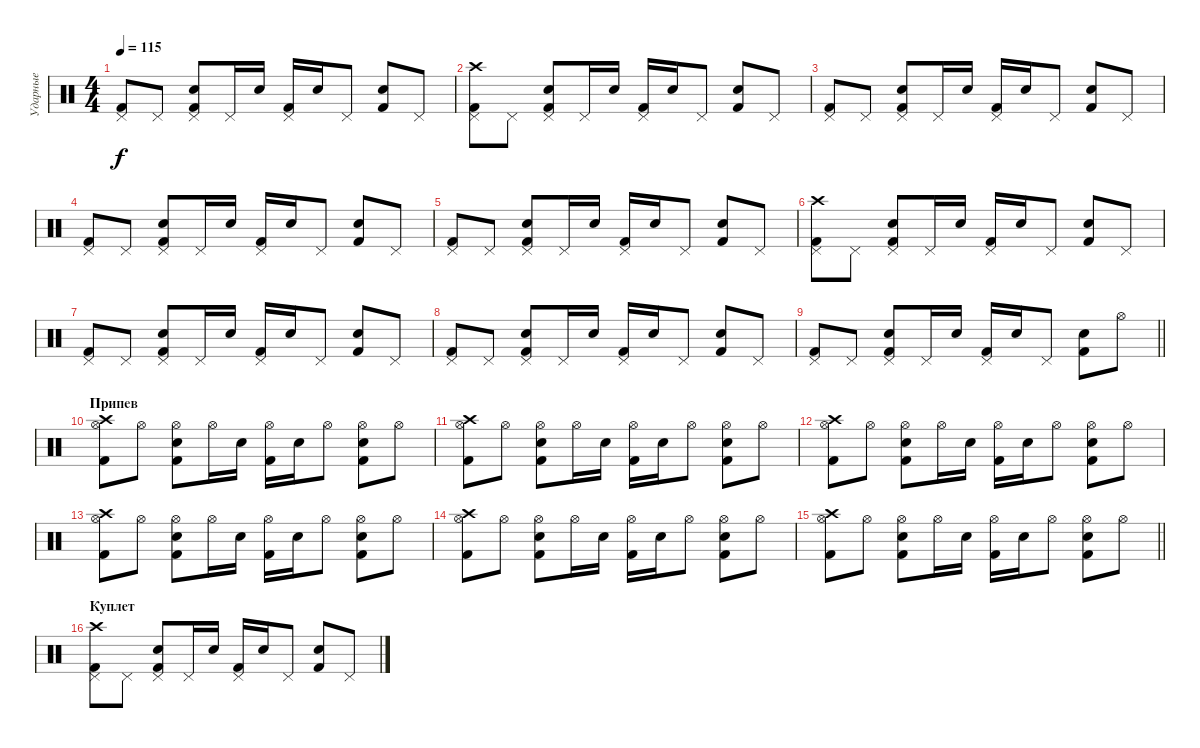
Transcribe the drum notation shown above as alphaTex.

\track ("Ударные" "Ударные") {instrument percussion}
\staff {score}
\articulation defaults
\ts (4 4)
\tempo 115
\clef neutral
\ks c
("Pedal Hi-Hat (hit)" "Kick (hit) 2").8{dy f} "Pedal Hi-Hat (hit)".8 ("Pedal Hi-Hat (hit)" "Electric Snare (hit)" "Kick (hit) 2").8 "Pedal Hi-Hat (hit)".16 "Electric Snare (hit)".16 ("Pedal Hi-Hat (hit)" "Kick (hit) 2").16 "Electric Snare (hit)".16 "Pedal Hi-Hat (hit)".8 ("Electric Snare (hit)" "Kick (hit) 2").8 "Pedal Hi-Hat (hit)".8 |
("Pedal Hi-Hat (hit)" "Crash high (hit)" "Kick (hit) 2").8 "Pedal Hi-Hat (hit)".8 ("Pedal Hi-Hat (hit)" "Electric Snare (hit)" "Kick (hit) 2").8 "Pedal Hi-Hat (hit)".16 "Electric Snare (hit)".16 ("Pedal Hi-Hat (hit)" "Kick (hit) 2").16 "Electric Snare (hit)".16 "Pedal Hi-Hat (hit)".8 ("Electric Snare (hit)" "Kick (hit) 2").8 "Pedal Hi-Hat (hit)".8 |
("Pedal Hi-Hat (hit)" "Kick (hit) 2").8 "Pedal Hi-Hat (hit)".8 ("Pedal Hi-Hat (hit)" "Electric Snare (hit)" "Kick (hit) 2").8 "Pedal Hi-Hat (hit)".16 "Electric Snare (hit)".16 ("Pedal Hi-Hat (hit)" "Kick (hit) 2").16 "Electric Snare (hit)".16 "Pedal Hi-Hat (hit)".8 ("Electric Snare (hit)" "Kick (hit) 2").8 "Pedal Hi-Hat (hit)".8 |
("Pedal Hi-Hat (hit)" "Kick (hit) 2").8 "Pedal Hi-Hat (hit)".8 ("Pedal Hi-Hat (hit)" "Electric Snare (hit)" "Kick (hit) 2").8 "Pedal Hi-Hat (hit)".16 "Electric Snare (hit)".16 ("Pedal Hi-Hat (hit)" "Kick (hit) 2").16 "Electric Snare (hit)".16 "Pedal Hi-Hat (hit)".8 ("Electric Snare (hit)" "Kick (hit) 2").8 "Pedal Hi-Hat (hit)".8 |
("Pedal Hi-Hat (hit)" "Kick (hit) 2").8 "Pedal Hi-Hat (hit)".8 ("Pedal Hi-Hat (hit)" "Electric Snare (hit)" "Kick (hit) 2").8 "Pedal Hi-Hat (hit)".16 "Electric Snare (hit)".16 ("Pedal Hi-Hat (hit)" "Kick (hit) 2").16 "Electric Snare (hit)".16 "Pedal Hi-Hat (hit)".8 ("Electric Snare (hit)" "Kick (hit) 2").8 "Pedal Hi-Hat (hit)".8 |
("Pedal Hi-Hat (hit)" "Crash high (hit)" "Kick (hit) 2").8 "Pedal Hi-Hat (hit)".8 ("Pedal Hi-Hat (hit)" "Electric Snare (hit)" "Kick (hit) 2").8 "Pedal Hi-Hat (hit)".16 "Electric Snare (hit)".16 ("Pedal Hi-Hat (hit)" "Kick (hit) 2").16 "Electric Snare (hit)".16 "Pedal Hi-Hat (hit)".8 ("Electric Snare (hit)" "Kick (hit) 2").8 "Pedal Hi-Hat (hit)".8 |
("Pedal Hi-Hat (hit)" "Kick (hit) 2").8 "Pedal Hi-Hat (hit)".8 ("Pedal Hi-Hat (hit)" "Electric Snare (hit)" "Kick (hit) 2").8 "Pedal Hi-Hat (hit)".16 "Electric Snare (hit)".16 ("Pedal Hi-Hat (hit)" "Kick (hit) 2").16 "Electric Snare (hit)".16 "Pedal Hi-Hat (hit)".8 ("Electric Snare (hit)" "Kick (hit) 2").8 "Pedal Hi-Hat (hit)".8 |
("Pedal Hi-Hat (hit)" "Kick (hit) 2").8 "Pedal Hi-Hat (hit)".8 ("Pedal Hi-Hat (hit)" "Electric Snare (hit)" "Kick (hit) 2").8 "Pedal Hi-Hat (hit)".16 "Electric Snare (hit)".16 ("Pedal Hi-Hat (hit)" "Kick (hit) 2").16 "Electric Snare (hit)".16 "Pedal Hi-Hat (hit)".8 ("Electric Snare (hit)" "Kick (hit) 2").8 "Pedal Hi-Hat (hit)".8 |
\barLineRight lightlight
("Pedal Hi-Hat (hit)" "Kick (hit) 2").8 "Pedal Hi-Hat (hit)".8 ("Pedal Hi-Hat (hit)" "Electric Snare (hit)" "Kick (hit) 2").8 "Pedal Hi-Hat (hit)".16 "Electric Snare (hit)".16 ("Pedal Hi-Hat (hit)" "Kick (hit) 2").16 "Electric Snare (hit)".16 "Pedal Hi-Hat (hit)".8 ("Electric Snare (hit)" "Kick (hit) 2").8 "Hi-Hat (open)".8 |
\section ("" "Припев")
("Hi-Hat (open)" "Crash high (hit)" "Kick (hit) 2").8 "Hi-Hat (open)".8 ("Hi-Hat (open)" "Electric Snare (hit)" "Kick (hit) 2").8 "Hi-Hat (open)".16 "Electric Snare (hit)".16 ("Hi-Hat (open)" "Kick (hit) 2").16 "Electric Snare (hit)".16 "Hi-Hat (open)".8 ("Hi-Hat (open)" "Electric Snare (hit)" "Kick (hit) 2").8 "Hi-Hat (open)".8 |
("Hi-Hat (open)" "Crash high (hit)" "Kick (hit) 2").8 "Hi-Hat (open)".8 ("Hi-Hat (open)" "Electric Snare (hit)" "Kick (hit) 2").8 "Hi-Hat (open)".16 "Electric Snare (hit)".16 ("Hi-Hat (open)" "Kick (hit) 2").16 "Electric Snare (hit)".16 "Hi-Hat (open)".8 ("Hi-Hat (open)" "Electric Snare (hit)" "Kick (hit) 2").8 "Hi-Hat (open)".8 |
("Hi-Hat (open)" "Crash high (hit)" "Kick (hit) 2").8 "Hi-Hat (open)".8 ("Hi-Hat (open)" "Electric Snare (hit)" "Kick (hit) 2").8 "Hi-Hat (open)".16 "Electric Snare (hit)".16 ("Hi-Hat (open)" "Kick (hit) 2").16 "Electric Snare (hit)".16 "Hi-Hat (open)".8 ("Hi-Hat (open)" "Electric Snare (hit)" "Kick (hit) 2").8 "Hi-Hat (open)".8 |
("Hi-Hat (open)" "Crash high (hit)" "Kick (hit) 2").8 "Hi-Hat (open)".8 ("Hi-Hat (open)" "Electric Snare (hit)" "Kick (hit) 2").8 "Hi-Hat (open)".16 "Electric Snare (hit)".16 ("Hi-Hat (open)" "Kick (hit) 2").16 "Electric Snare (hit)".16 "Hi-Hat (open)".8 ("Hi-Hat (open)" "Electric Snare (hit)" "Kick (hit) 2").8 "Hi-Hat (open)".8 |
("Hi-Hat (open)" "Crash high (hit)" "Kick (hit) 2").8 "Hi-Hat (open)".8 ("Hi-Hat (open)" "Electric Snare (hit)" "Kick (hit) 2").8 "Hi-Hat (open)".16 "Electric Snare (hit)".16 ("Hi-Hat (open)" "Kick (hit) 2").16 "Electric Snare (hit)".16 "Hi-Hat (open)".8 ("Hi-Hat (open)" "Electric Snare (hit)" "Kick (hit) 2").8 "Hi-Hat (open)".8 |
\barLineRight lightlight
("Hi-Hat (open)" "Crash high (hit)" "Kick (hit) 2").8 "Hi-Hat (open)".8 ("Hi-Hat (open)" "Electric Snare (hit)" "Kick (hit) 2").8 "Hi-Hat (open)".16 "Electric Snare (hit)".16 ("Hi-Hat (open)" "Kick (hit) 2").16 "Electric Snare (hit)".16 "Hi-Hat (open)".8 ("Hi-Hat (open)" "Electric Snare (hit)" "Kick (hit) 2").8 "Hi-Hat (open)".8 |
\section ("" "Куплет")
("Pedal Hi-Hat (hit)" "Crash high (hit)" "Kick (hit) 2").8 "Pedal Hi-Hat (hit)".8 ("Pedal Hi-Hat (hit)" "Electric Snare (hit)" "Kick (hit) 2").8 "Pedal Hi-Hat (hit)".16 "Electric Snare (hit)".16 ("Pedal Hi-Hat (hit)" "Kick (hit) 2").16 "Electric Snare (hit)".16 "Pedal Hi-Hat (hit)".8 ("Electric Snare (hit)" "Kick (hit) 2").8 "Pedal Hi-Hat (hit)".8
